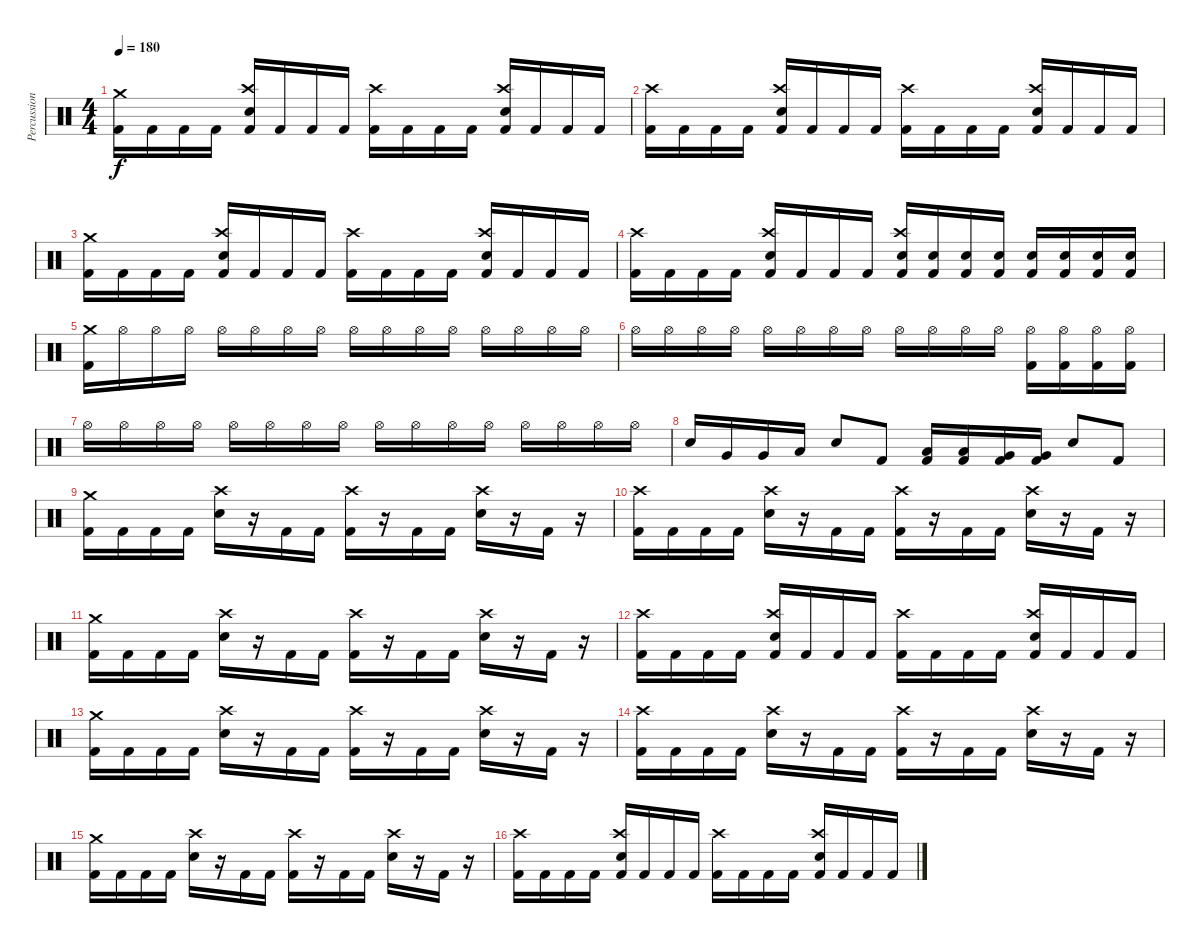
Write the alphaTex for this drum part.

\track ("Percussions" "Percussion") {instrument percussion}
\staff {score}
\articulation defaults
\ts (4 4)
\tempo 180
\clef neutral
\ks c
("Crash medium (hit)" "Kick (hit) 2").16{dy f} "Kick (hit) 2".16 "Kick (hit) 2".16 "Kick (hit) 2".16 ("Crash high (hit)" "Snare (hit) 2" "Kick (hit) 2").16 "Kick (hit) 2".16 "Kick (hit) 2".16 "Kick (hit) 2".16 ("Crash high (hit)" "Kick (hit) 2").16 "Kick (hit) 2".16 "Kick (hit) 2".16 "Kick (hit) 2".16 ("Crash high (hit)" "Snare (hit) 2" "Kick (hit) 2").16 "Kick (hit) 2".16 "Kick (hit) 2".16 "Kick (hit) 2".16 |
("Crash high (hit)" "Kick (hit) 2").16 "Kick (hit) 2".16 "Kick (hit) 2".16 "Kick (hit) 2".16 ("Crash high (hit)" "Snare (hit) 2" "Kick (hit) 2").16 "Kick (hit) 2".16 "Kick (hit) 2".16 "Kick (hit) 2".16 ("Crash high (hit)" "Kick (hit) 2").16 "Kick (hit) 2".16 "Kick (hit) 2".16 "Kick (hit) 2".16 ("Crash high (hit)" "Snare (hit) 2" "Kick (hit) 2").16 "Kick (hit) 2".16 "Kick (hit) 2".16 "Kick (hit) 2".16 |
("Crash medium (hit)" "Kick (hit) 2").16 "Kick (hit) 2".16 "Kick (hit) 2".16 "Kick (hit) 2".16 ("Crash high (hit)" "Snare (hit) 2" "Kick (hit) 2").16 "Kick (hit) 2".16 "Kick (hit) 2".16 "Kick (hit) 2".16 ("Crash high (hit)" "Kick (hit) 2").16 "Kick (hit) 2".16 "Kick (hit) 2".16 "Kick (hit) 2".16 ("Crash high (hit)" "Snare (hit) 2" "Kick (hit) 2").16 "Kick (hit) 2".16 "Kick (hit) 2".16 "Kick (hit) 2".16 |
("Crash high (hit)" "Kick (hit) 2").16 "Kick (hit) 2".16 "Kick (hit) 2".16 "Kick (hit) 2".16 ("Crash high (hit)" "Snare (hit) 2" "Kick (hit) 2").16 "Kick (hit) 2".16 "Kick (hit) 2".16 "Kick (hit) 2".16 ("Crash high (hit)" "Snare (hit) 2" "Kick (hit) 2").16 ("Snare (hit) 2" "Kick (hit) 2").16 ("Snare (hit) 2" "Kick (hit) 2").16 ("Snare (hit) 2" "Kick (hit) 2").16 ("Snare (hit) 2" "Kick (hit) 2").16 ("Snare (hit) 2" "Kick (hit) 2").16 ("Snare (hit) 2" "Kick (hit) 2").16 ("Snare (hit) 2" "Kick (hit) 2").16 |
("Crash medium (hit)" "Kick (hit) 2").16 "Hi-Hat (open)".16 "Hi-Hat (open)".16 "Hi-Hat (open)".16 "Hi-Hat (open)".16 "Hi-Hat (open)".16 "Hi-Hat (open)".16 "Hi-Hat (open)".16 "Hi-Hat (open)".16 "Hi-Hat (open)".16 "Hi-Hat (open)".16 "Hi-Hat (open)".16 "Hi-Hat (open)".16 "Hi-Hat (open)".16 "Hi-Hat (open)".16 "Hi-Hat (open)".16 |
"Hi-Hat (open)".16 "Hi-Hat (open)".16 "Hi-Hat (open)".16 "Hi-Hat (open)".16 "Hi-Hat (open)".16 "Hi-Hat (open)".16 "Hi-Hat (open)".16 "Hi-Hat (open)".16 "Hi-Hat (open)".16 "Hi-Hat (open)".16 "Hi-Hat (open)".16 "Hi-Hat (open)".16 ("Hi-Hat (open)" "Kick (hit) 2").16 ("Hi-Hat (open)" "Kick (hit) 2").16 ("Hi-Hat (open)" "Kick (hit) 2").16 ("Hi-Hat (open)" "Kick (hit) 2").16 |
"Hi-Hat (open)".16 "Hi-Hat (open)".16 "Hi-Hat (open)".16 "Hi-Hat (open)".16 "Hi-Hat (open)".16 "Hi-Hat (open)".16 "Hi-Hat (open)".16 "Hi-Hat (open)".16 "Hi-Hat (open)".16 "Hi-Hat (open)".16 "Hi-Hat (open)".16 "Hi-Hat (open)".16 "Hi-Hat (open)".16 "Hi-Hat (open)".16 "Hi-Hat (open)".16 "Hi-Hat (open)".16 |
"Snare (hit) 2".16 "Very Low Tom (hit)".16 "Very Low Tom (hit)".16 "Low Floor Tom (hit)".16 "Snare (hit) 2".8 "Kick (hit) 2".8 ("Low Tom (hit)" "Kick (hit) 2").16 ("Low Tom (hit)" "Kick (hit) 2").16 ("Very Low Tom (hit)" "Kick (hit) 2").16 ("Very Low Tom (hit)" "Kick (hit) 2").16 "Snare (hit) 2".8 "Kick (hit) 2".8 |
("Crash medium (hit)" "Kick (hit) 2").16 "Kick (hit) 2".16 "Kick (hit) 2".16 "Kick (hit) 2".16 ("Crash high (hit)" "Snare (hit) 2").16 r.16 "Kick (hit) 2".16 "Kick (hit) 2".16 ("Crash high (hit)" "Kick (hit) 2").16 r.16 "Kick (hit) 2".16 "Kick (hit) 2".16 ("Crash high (hit)" "Snare (hit) 2").16 r.16 "Kick (hit) 2".16 r.16 |
("Crash high (hit)" "Kick (hit) 2").16 "Kick (hit) 2".16 "Kick (hit) 2".16 "Kick (hit) 2".16 ("Crash high (hit)" "Snare (hit) 2").16 r.16 "Kick (hit) 2".16 "Kick (hit) 2".16 ("Crash high (hit)" "Kick (hit) 2").16 r.16 "Kick (hit) 2".16 "Kick (hit) 2".16 ("Crash high (hit)" "Snare (hit) 2").16 r.16 "Kick (hit) 2".16 r.16 |
("Crash medium (hit)" "Kick (hit) 2").16 "Kick (hit) 2".16 "Kick (hit) 2".16 "Kick (hit) 2".16 ("Crash high (hit)" "Snare (hit) 2").16 r.16 "Kick (hit) 2".16 "Kick (hit) 2".16 ("Crash high (hit)" "Kick (hit) 2").16 r.16 "Kick (hit) 2".16 "Kick (hit) 2".16 ("Crash high (hit)" "Snare (hit) 2").16 r.16 "Kick (hit) 2".16 r.16 |
("Crash high (hit)" "Kick (hit) 2").16 "Kick (hit) 2".16 "Kick (hit) 2".16 "Kick (hit) 2".16 ("Crash high (hit)" "Snare (hit) 2" "Kick (hit) 2").16 "Kick (hit) 2".16 "Kick (hit) 2".16 "Kick (hit) 2".16 ("Crash high (hit)" "Kick (hit) 2").16 "Kick (hit) 2".16 "Kick (hit) 2".16 "Kick (hit) 2".16 ("Crash high (hit)" "Snare (hit) 2" "Kick (hit) 2").16 "Kick (hit) 2".16 "Kick (hit) 2".16 "Kick (hit) 2".16 |
("Crash medium (hit)" "Kick (hit) 2").16 "Kick (hit) 2".16 "Kick (hit) 2".16 "Kick (hit) 2".16 ("Crash high (hit)" "Snare (hit) 2").16 r.16 "Kick (hit) 2".16 "Kick (hit) 2".16 ("Crash high (hit)" "Kick (hit) 2").16 r.16 "Kick (hit) 2".16 "Kick (hit) 2".16 ("Crash high (hit)" "Snare (hit) 2").16 r.16 "Kick (hit) 2".16 r.16 |
("Crash high (hit)" "Kick (hit) 2").16 "Kick (hit) 2".16 "Kick (hit) 2".16 "Kick (hit) 2".16 ("Crash high (hit)" "Snare (hit) 2").16 r.16 "Kick (hit) 2".16 "Kick (hit) 2".16 ("Crash high (hit)" "Kick (hit) 2").16 r.16 "Kick (hit) 2".16 "Kick (hit) 2".16 ("Crash high (hit)" "Snare (hit) 2").16 r.16 "Kick (hit) 2".16 r.16 |
("Crash medium (hit)" "Kick (hit) 2").16 "Kick (hit) 2".16 "Kick (hit) 2".16 "Kick (hit) 2".16 ("Crash high (hit)" "Snare (hit) 2").16 r.16 "Kick (hit) 2".16 "Kick (hit) 2".16 ("Crash high (hit)" "Kick (hit) 2").16 r.16 "Kick (hit) 2".16 "Kick (hit) 2".16 ("Crash high (hit)" "Snare (hit) 2").16 r.16 "Kick (hit) 2".16 r.16 |
("Crash high (hit)" "Kick (hit) 2").16 "Kick (hit) 2".16 "Kick (hit) 2".16 "Kick (hit) 2".16 ("Crash high (hit)" "Snare (hit) 2" "Kick (hit) 2").16 "Kick (hit) 2".16 "Kick (hit) 2".16 "Kick (hit) 2".16 ("Crash high (hit)" "Kick (hit) 2").16 "Kick (hit) 2".16 "Kick (hit) 2".16 "Kick (hit) 2".16 ("Crash high (hit)" "Snare (hit) 2" "Kick (hit) 2").16 "Kick (hit) 2".16 "Kick (hit) 2".16 "Kick (hit) 2".16
